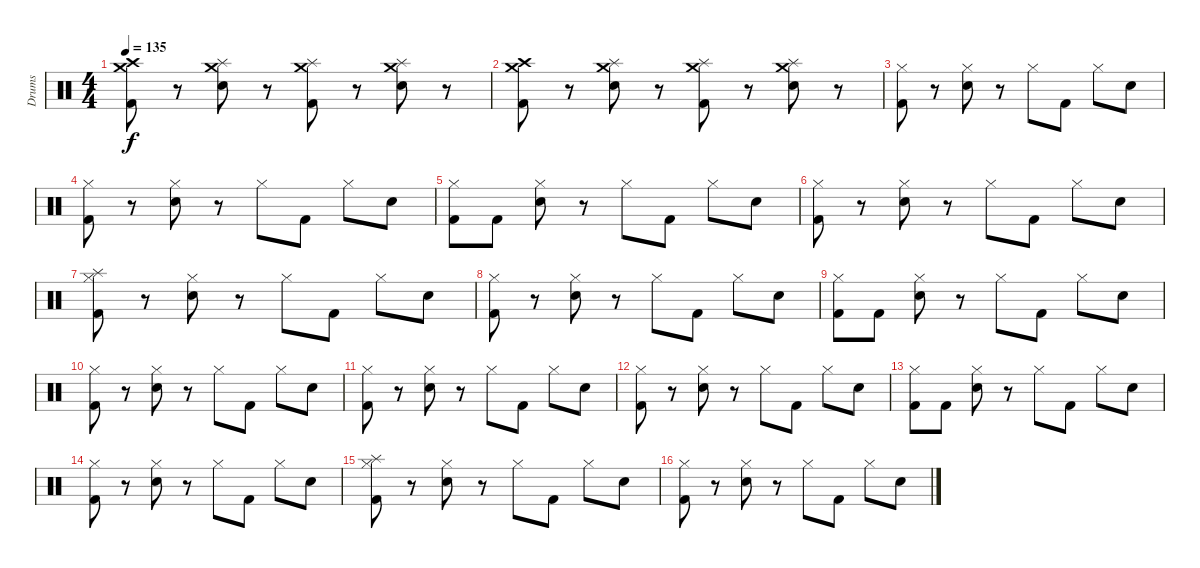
\track ("Drums" "Drums") {instrument percussion}
\staff {score}
\articulation defaults
\ts (4 4)
\tempo 135
\clef neutral
\ks c
("Crash medium (hit)" "Crash high (hit)" "Kick (hit) 2").8{dy f} r.8 ("Splash (hit)" "Crash medium (hit)" "Snare (hit) 2").8 r.8 ("Splash (hit)" "Crash medium (hit)" "Kick (hit) 2").8 r.8 ("Splash (hit)" "Crash medium (hit)" "Snare (hit) 2").8 r.8 |
("Crash medium (hit)" "Crash high (hit)" "Kick (hit) 2").8 r.8 ("Splash (hit)" "Crash medium (hit)" "Snare (hit) 2").8 r.8 ("Splash (hit)" "Crash medium (hit)" "Kick (hit) 2").8 r.8 ("Splash (hit)" "Crash medium (hit)" "Snare (hit) 2").8 r.8 |
("Hi-Hat (closed)" "Kick (hit) 2").8 r.8 ("Hi-Hat (closed)" "Snare (hit) 2").8 r.8 "Hi-Hat (closed)".8 "Kick (hit) 2".8 "Hi-Hat (closed)".8 "Snare (hit) 2".8 |
("Hi-Hat (closed)" "Kick (hit) 2").8 r.8 ("Hi-Hat (closed)" "Snare (hit) 2").8 r.8 "Hi-Hat (closed)".8 "Kick (hit) 2".8 "Hi-Hat (closed)".8 "Snare (hit) 2".8 |
("Hi-Hat (closed)" "Kick (hit) 2").8 "Kick (hit) 2".8 ("Hi-Hat (closed)" "Snare (hit) 2").8 r.8 "Hi-Hat (closed)".8 "Kick (hit) 2".8 "Hi-Hat (closed)".8 "Snare (hit) 2".8 |
("Hi-Hat (closed)" "Kick (hit) 2").8 r.8 ("Hi-Hat (closed)" "Snare (hit) 2").8 r.8 "Hi-Hat (closed)".8 "Kick (hit) 2".8 "Hi-Hat (closed)".8 "Snare (hit) 2".8 |
("Hi-Hat (closed)" "Splash (hit)" "Kick (hit) 2").8 r.8 ("Hi-Hat (closed)" "Snare (hit) 2").8 r.8 "Hi-Hat (closed)".8 "Kick (hit) 2".8 "Hi-Hat (closed)".8 "Snare (hit) 2".8 |
("Hi-Hat (closed)" "Kick (hit) 2").8 r.8 ("Hi-Hat (closed)" "Snare (hit) 2").8 r.8 "Hi-Hat (closed)".8 "Kick (hit) 2".8 "Hi-Hat (closed)".8 "Snare (hit) 2".8 |
("Hi-Hat (closed)" "Kick (hit) 2").8 "Kick (hit) 2".8 ("Hi-Hat (closed)" "Snare (hit) 2").8 r.8 "Hi-Hat (closed)".8 "Kick (hit) 2".8 "Hi-Hat (closed)".8 "Snare (hit) 2".8 |
("Hi-Hat (closed)" "Kick (hit) 2").8 r.8 ("Hi-Hat (closed)" "Snare (hit) 2").8 r.8 "Hi-Hat (closed)".8 "Kick (hit) 2".8 "Hi-Hat (closed)".8 "Snare (hit) 2".8 |
("Hi-Hat (closed)" "Kick (hit) 2").8 r.8 ("Hi-Hat (closed)" "Snare (hit) 2").8 r.8 "Hi-Hat (closed)".8 "Kick (hit) 2".8 "Hi-Hat (closed)".8 "Snare (hit) 2".8 |
("Hi-Hat (closed)" "Kick (hit) 2").8 r.8 ("Hi-Hat (closed)" "Snare (hit) 2").8 r.8 "Hi-Hat (closed)".8 "Kick (hit) 2".8 "Hi-Hat (closed)".8 "Snare (hit) 2".8 |
("Hi-Hat (closed)" "Kick (hit) 2").8 "Kick (hit) 2".8 ("Hi-Hat (closed)" "Snare (hit) 2").8 r.8 "Hi-Hat (closed)".8 "Kick (hit) 2".8 "Hi-Hat (closed)".8 "Snare (hit) 2".8 |
("Hi-Hat (closed)" "Kick (hit) 2").8 r.8 ("Hi-Hat (closed)" "Snare (hit) 2").8 r.8 "Hi-Hat (closed)".8 "Kick (hit) 2".8 "Hi-Hat (closed)".8 "Snare (hit) 2".8 |
("Hi-Hat (closed)" "Splash (hit)" "Kick (hit) 2").8 r.8 ("Hi-Hat (closed)" "Snare (hit) 2").8 r.8 "Hi-Hat (closed)".8 "Kick (hit) 2".8 "Hi-Hat (closed)".8 "Snare (hit) 2".8 |
("Hi-Hat (closed)" "Kick (hit) 2").8 r.8 ("Hi-Hat (closed)" "Snare (hit) 2").8 r.8 "Hi-Hat (closed)".8 "Kick (hit) 2".8 "Hi-Hat (closed)".8 "Snare (hit) 2".8
